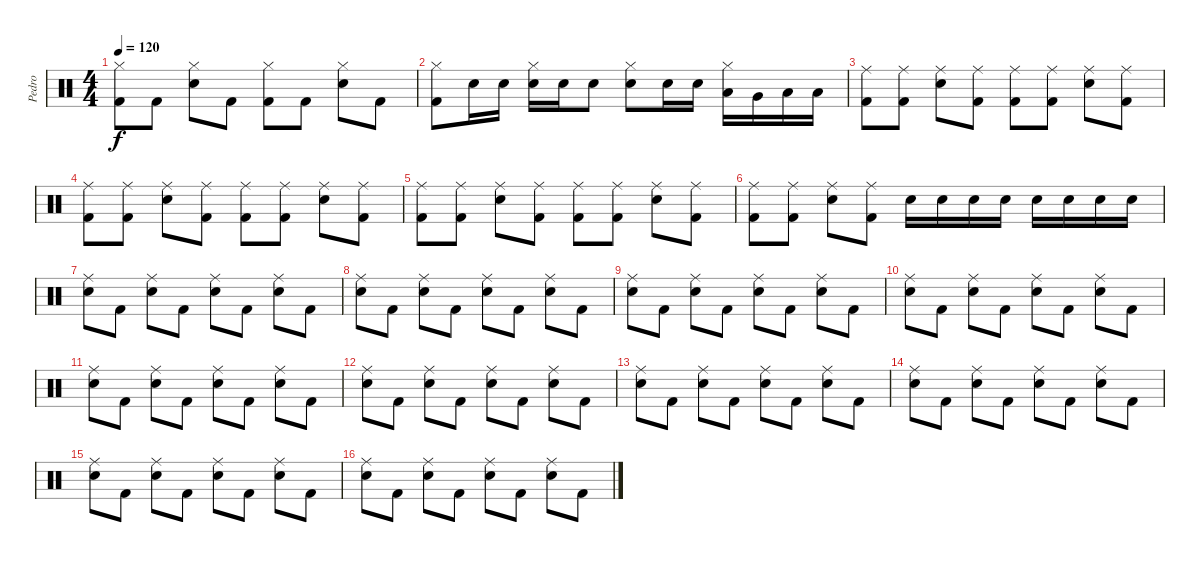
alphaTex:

\track ("Pedro" "Pedro") {instrument percussion}
\staff {score}
\articulation defaults
\ts (4 4)
\tempo 120
\clef neutral
\ks c
("Hi-Hat (closed)" "Kick (hit) 2").8{dy f} "Kick (hit) 2".8 ("Hi-Hat (closed)" "Snare (hit) 2").8 "Kick (hit) 2".8 ("Hi-Hat (closed)" "Kick (hit) 2").8 "Kick (hit) 2".8 ("Hi-Hat (closed)" "Snare (hit) 2").8 "Kick (hit) 2".8 |
("Kick (hit) 2" "Hi-Hat (closed)").8 "Snare (hit) 2".16 "Snare (hit) 2".16 ("Snare (hit) 2" "Hi-Hat (closed)").16 "Snare (hit) 2".16 "Snare (hit) 2".8 ("Snare (hit) 2" "Hi-Hat (closed)").8 "Snare (hit) 2".16 "Snare (hit) 2".16 ("Low Tom (hit)" "Hi-Hat (closed)").16 "Very Low Tom (hit)".16 "Low Floor Tom (hit)".16 "Low Floor Tom (hit)".16 |
("Ride (middle)" "Kick (hit) 2").8 ("Ride (middle)" "Kick (hit) 2").8 ("Ride (middle)" "Snare (hit) 2").8 ("Ride (middle)" "Kick (hit) 2").8 ("Ride (middle)" "Kick (hit) 2").8 ("Ride (middle)" "Kick (hit) 2").8 ("Ride (middle)" "Snare (hit) 2").8 ("Ride (middle)" "Kick (hit) 2").8 |
("Ride (middle)" "Kick (hit) 2").8 ("Ride (middle)" "Kick (hit) 2").8 ("Ride (middle)" "Snare (hit) 2").8 ("Ride (middle)" "Kick (hit) 2").8 ("Ride (middle)" "Kick (hit) 2").8 ("Ride (middle)" "Kick (hit) 2").8 ("Ride (middle)" "Snare (hit) 2").8 ("Ride (middle)" "Kick (hit) 2").8 |
("Ride (middle)" "Kick (hit) 2").8 ("Ride (middle)" "Kick (hit) 2").8 ("Ride (middle)" "Snare (hit) 2").8 ("Ride (middle)" "Kick (hit) 2").8 ("Ride (middle)" "Kick (hit) 2").8 ("Ride (middle)" "Kick (hit) 2").8 ("Ride (middle)" "Snare (hit) 2").8 ("Ride (middle)" "Kick (hit) 2").8 |
("Ride (middle)" "Kick (hit) 2").8 ("Ride (middle)" "Kick (hit) 2").8 ("Ride (middle)" "Snare (hit) 2").8 ("Ride (middle)" "Kick (hit) 2").8 "Snare (hit) 2".16 "Snare (hit) 2".16 "Snare (hit) 2".16 "Snare (hit) 2".16 "Snare (hit) 2".16 "Snare (hit) 2".16 "Snare (hit) 2".16 "Snare (hit) 2".16 |
("Ride (middle)" "Snare (hit) 2").8 "Kick (hit) 2".8 ("Ride (middle)" "Snare (hit) 2").8 "Kick (hit) 2".8 ("Ride (middle)" "Snare (hit) 2").8 "Kick (hit) 2".8 ("Ride (middle)" "Snare (hit) 2").8 "Kick (hit) 2".8 |
("Ride (middle)" "Snare (hit) 2").8 "Kick (hit) 2".8 ("Ride (middle)" "Snare (hit) 2").8 "Kick (hit) 2".8 ("Ride (middle)" "Snare (hit) 2").8 "Kick (hit) 2".8 ("Ride (middle)" "Snare (hit) 2").8 "Kick (hit) 2".8 |
("Ride (middle)" "Snare (hit) 2").8 "Kick (hit) 2".8 ("Ride (middle)" "Snare (hit) 2").8 "Kick (hit) 2".8 ("Ride (middle)" "Snare (hit) 2").8 "Kick (hit) 2".8 ("Ride (middle)" "Snare (hit) 2").8 "Kick (hit) 2".8 |
("Ride (middle)" "Snare (hit) 2").8 "Kick (hit) 2".8 ("Ride (middle)" "Snare (hit) 2").8 "Kick (hit) 2".8 ("Ride (middle)" "Snare (hit) 2").8 "Kick (hit) 2".8 ("Ride (middle)" "Snare (hit) 2").8 "Kick (hit) 2".8 |
("Ride (middle)" "Snare (hit) 2").8 "Kick (hit) 2".8 ("Ride (middle)" "Snare (hit) 2").8 "Kick (hit) 2".8 ("Ride (middle)" "Snare (hit) 2").8 "Kick (hit) 2".8 ("Ride (middle)" "Snare (hit) 2").8 "Kick (hit) 2".8 |
("Ride (middle)" "Snare (hit) 2").8 "Kick (hit) 2".8 ("Ride (middle)" "Snare (hit) 2").8 "Kick (hit) 2".8 ("Ride (middle)" "Snare (hit) 2").8 "Kick (hit) 2".8 ("Ride (middle)" "Snare (hit) 2").8 "Kick (hit) 2".8 |
("Ride (middle)" "Snare (hit) 2").8 "Kick (hit) 2".8 ("Ride (middle)" "Snare (hit) 2").8 "Kick (hit) 2".8 ("Ride (middle)" "Snare (hit) 2").8 "Kick (hit) 2".8 ("Ride (middle)" "Snare (hit) 2").8 "Kick (hit) 2".8 |
("Ride (middle)" "Snare (hit) 2").8 "Kick (hit) 2".8 ("Ride (middle)" "Snare (hit) 2").8 "Kick (hit) 2".8 ("Ride (middle)" "Snare (hit) 2").8 "Kick (hit) 2".8 ("Ride (middle)" "Snare (hit) 2").8 "Kick (hit) 2".8 |
("Ride (middle)" "Snare (hit) 2").8 "Kick (hit) 2".8 ("Ride (middle)" "Snare (hit) 2").8 "Kick (hit) 2".8 ("Ride (middle)" "Snare (hit) 2").8 "Kick (hit) 2".8 ("Ride (middle)" "Snare (hit) 2").8 "Kick (hit) 2".8 |
("Ride (middle)" "Snare (hit) 2").8 "Kick (hit) 2".8 ("Ride (middle)" "Snare (hit) 2").8 "Kick (hit) 2".8 ("Ride (middle)" "Snare (hit) 2").8 "Kick (hit) 2".8 ("Ride (middle)" "Snare (hit) 2").8 "Kick (hit) 2".8
